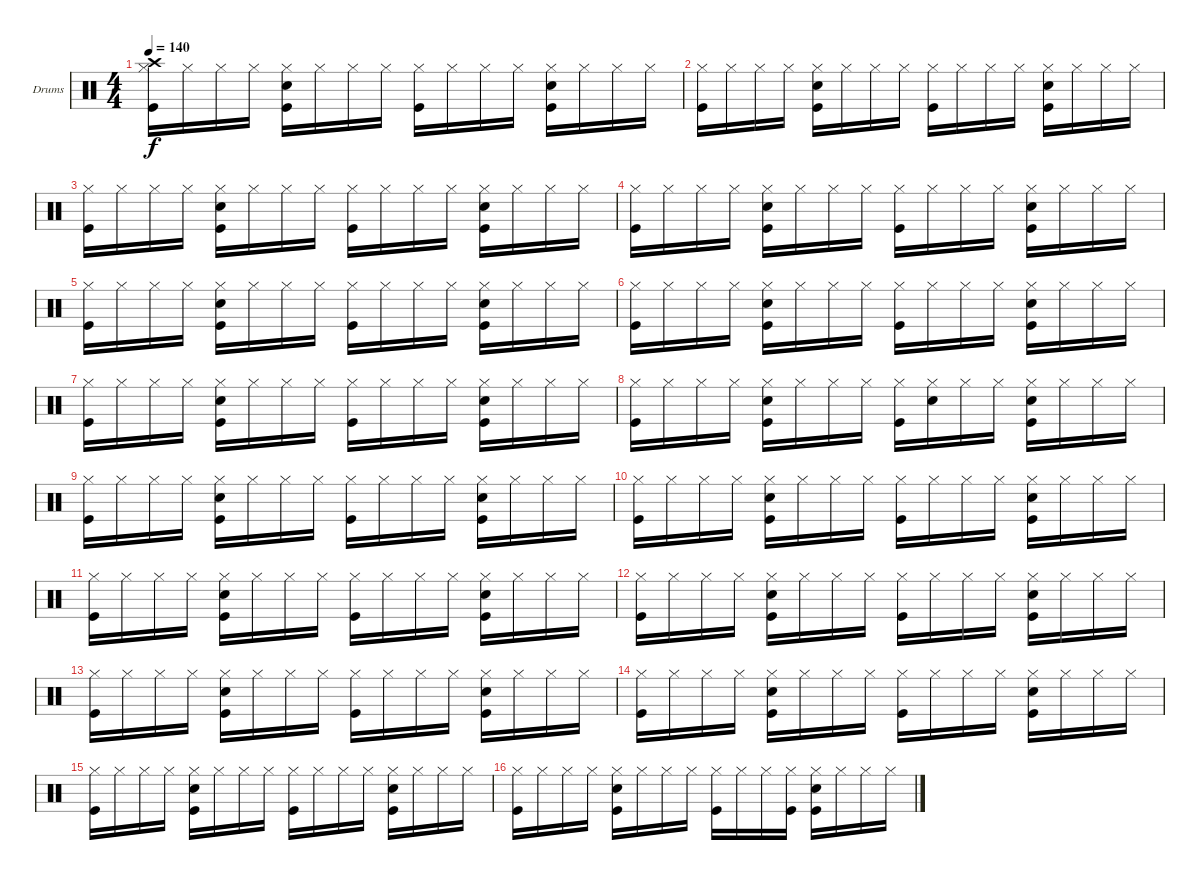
\defaultSystemsLayout 4
\bracketExtendMode groupsimilarinstruments
\firstSystemTrackNameOrientation horizontal
\otherSystemsTrackNameOrientation horizontal
\track ("Drumkit" "Drums") {instrument percussion}
\staff {score}
\articulation defaults
\ts (4 4)
\tempo 140
\clef neutral
\ks c
("Hi-Hat (closed)" "Kick (hit)" "Crash high (hit)").16{dy f} "Hi-Hat (closed)".16 "Hi-Hat (closed)".16 "Hi-Hat (closed)".16 ("Hi-Hat (closed)" "Kick (hit)" "Snare (hit) 2").16 "Hi-Hat (closed)".16 "Hi-Hat (closed)".16 "Hi-Hat (closed)".16 ("Hi-Hat (closed)" "Kick (hit)").16 "Hi-Hat (closed)".16 "Hi-Hat (closed)".16 "Hi-Hat (closed)".16 ("Hi-Hat (closed)" "Kick (hit)" "Snare (hit) 2").16 "Hi-Hat (closed)".16 "Hi-Hat (closed)".16 "Hi-Hat (closed)".16 |
("Hi-Hat (closed)" "Kick (hit)").16 "Hi-Hat (closed)".16 "Hi-Hat (closed)".16 "Hi-Hat (closed)".16 ("Hi-Hat (closed)" "Kick (hit)" "Snare (hit) 2").16 "Hi-Hat (closed)".16 "Hi-Hat (closed)".16 "Hi-Hat (closed)".16 ("Hi-Hat (closed)" "Kick (hit)").16 "Hi-Hat (closed)".16 "Hi-Hat (closed)".16 "Hi-Hat (closed)".16 ("Hi-Hat (closed)" "Kick (hit)" "Snare (hit) 2").16 "Hi-Hat (closed)".16 "Hi-Hat (closed)".16 "Hi-Hat (closed)".16 |
("Hi-Hat (closed)" "Kick (hit)").16 "Hi-Hat (closed)".16 "Hi-Hat (closed)".16 "Hi-Hat (closed)".16 ("Hi-Hat (closed)" "Kick (hit)" "Snare (hit) 2").16 "Hi-Hat (closed)".16 "Hi-Hat (closed)".16 "Hi-Hat (closed)".16 ("Hi-Hat (closed)" "Kick (hit)").16 "Hi-Hat (closed)".16 "Hi-Hat (closed)".16 "Hi-Hat (closed)".16 ("Hi-Hat (closed)" "Kick (hit)" "Snare (hit) 2").16 "Hi-Hat (closed)".16 "Hi-Hat (closed)".16 "Hi-Hat (closed)".16 |
("Hi-Hat (closed)" "Kick (hit)").16 "Hi-Hat (closed)".16 "Hi-Hat (closed)".16 "Hi-Hat (closed)".16 ("Hi-Hat (closed)" "Kick (hit)" "Snare (hit) 2").16 "Hi-Hat (closed)".16 "Hi-Hat (closed)".16 "Hi-Hat (closed)".16 ("Hi-Hat (closed)" "Kick (hit)").16 "Hi-Hat (closed)".16 "Hi-Hat (closed)".16 "Hi-Hat (closed)".16 ("Hi-Hat (closed)" "Kick (hit)" "Snare (hit) 2").16 "Hi-Hat (closed)".16 "Hi-Hat (closed)".16 "Hi-Hat (closed)".16 |
("Hi-Hat (closed)" "Kick (hit)").16 "Hi-Hat (closed)".16 "Hi-Hat (closed)".16 "Hi-Hat (closed)".16 ("Hi-Hat (closed)" "Kick (hit)" "Snare (hit) 2").16 "Hi-Hat (closed)".16 "Hi-Hat (closed)".16 "Hi-Hat (closed)".16 ("Hi-Hat (closed)" "Kick (hit)").16 "Hi-Hat (closed)".16 "Hi-Hat (closed)".16 "Hi-Hat (closed)".16 ("Hi-Hat (closed)" "Kick (hit)" "Snare (hit) 2").16 "Hi-Hat (closed)".16 "Hi-Hat (closed)".16 "Hi-Hat (closed)".16 |
("Hi-Hat (closed)" "Kick (hit)").16 "Hi-Hat (closed)".16 "Hi-Hat (closed)".16 "Hi-Hat (closed)".16 ("Hi-Hat (closed)" "Kick (hit)" "Snare (hit) 2").16 "Hi-Hat (closed)".16 "Hi-Hat (closed)".16 "Hi-Hat (closed)".16 ("Hi-Hat (closed)" "Kick (hit)").16 "Hi-Hat (closed)".16 "Hi-Hat (closed)".16 "Hi-Hat (closed)".16 ("Hi-Hat (closed)" "Kick (hit)" "Snare (hit) 2").16 "Hi-Hat (closed)".16 "Hi-Hat (closed)".16 "Hi-Hat (closed)".16 |
("Hi-Hat (closed)" "Kick (hit)").16 "Hi-Hat (closed)".16 "Hi-Hat (closed)".16 "Hi-Hat (closed)".16 ("Hi-Hat (closed)" "Kick (hit)" "Snare (hit) 2").16 "Hi-Hat (closed)".16 "Hi-Hat (closed)".16 "Hi-Hat (closed)".16 ("Hi-Hat (closed)" "Kick (hit)").16 "Hi-Hat (closed)".16 "Hi-Hat (closed)".16 "Hi-Hat (closed)".16 ("Hi-Hat (closed)" "Kick (hit)" "Snare (hit) 2").16 "Hi-Hat (closed)".16 "Hi-Hat (closed)".16 "Hi-Hat (closed)".16 |
("Hi-Hat (closed)" "Kick (hit)").16 "Hi-Hat (closed)".16 "Hi-Hat (closed)".16 "Hi-Hat (closed)".16 ("Hi-Hat (closed)" "Kick (hit)" "Snare (hit) 2").16 "Hi-Hat (closed)".16 "Hi-Hat (closed)".16 "Hi-Hat (closed)".16 ("Hi-Hat (closed)" "Kick (hit)").16 ("Hi-Hat (closed)" "Snare (hit) 2").16 "Hi-Hat (closed)".16 "Hi-Hat (closed)".16 ("Hi-Hat (closed)" "Kick (hit)" "Snare (hit) 2").16 "Hi-Hat (closed)".16 "Hi-Hat (closed)".16 "Hi-Hat (closed)".16 |
("Hi-Hat (closed)" "Kick (hit)").16 "Hi-Hat (closed)".16 "Hi-Hat (closed)".16 "Hi-Hat (closed)".16 ("Hi-Hat (closed)" "Kick (hit)" "Snare (hit) 2").16 "Hi-Hat (closed)".16 "Hi-Hat (closed)".16 "Hi-Hat (closed)".16 ("Hi-Hat (closed)" "Kick (hit)").16 "Hi-Hat (closed)".16 "Hi-Hat (closed)".16 "Hi-Hat (closed)".16 ("Hi-Hat (closed)" "Kick (hit)" "Snare (hit) 2").16 "Hi-Hat (closed)".16 "Hi-Hat (closed)".16 "Hi-Hat (closed)".16 |
("Hi-Hat (closed)" "Kick (hit)").16 "Hi-Hat (closed)".16 "Hi-Hat (closed)".16 "Hi-Hat (closed)".16 ("Hi-Hat (closed)" "Kick (hit)" "Snare (hit) 2").16 "Hi-Hat (closed)".16 "Hi-Hat (closed)".16 "Hi-Hat (closed)".16 ("Hi-Hat (closed)" "Kick (hit)").16 "Hi-Hat (closed)".16 "Hi-Hat (closed)".16 "Hi-Hat (closed)".16 ("Hi-Hat (closed)" "Kick (hit)" "Snare (hit) 2").16 "Hi-Hat (closed)".16 "Hi-Hat (closed)".16 "Hi-Hat (closed)".16 |
("Hi-Hat (closed)" "Kick (hit)").16 "Hi-Hat (closed)".16 "Hi-Hat (closed)".16 "Hi-Hat (closed)".16 ("Hi-Hat (closed)" "Kick (hit)" "Snare (hit) 2").16 "Hi-Hat (closed)".16 "Hi-Hat (closed)".16 "Hi-Hat (closed)".16 ("Hi-Hat (closed)" "Kick (hit)").16 "Hi-Hat (closed)".16 "Hi-Hat (closed)".16 "Hi-Hat (closed)".16 ("Hi-Hat (closed)" "Kick (hit)" "Snare (hit) 2").16 "Hi-Hat (closed)".16 "Hi-Hat (closed)".16 "Hi-Hat (closed)".16 |
("Hi-Hat (closed)" "Kick (hit)").16 "Hi-Hat (closed)".16 "Hi-Hat (closed)".16 "Hi-Hat (closed)".16 ("Hi-Hat (closed)" "Kick (hit)" "Snare (hit) 2").16 "Hi-Hat (closed)".16 "Hi-Hat (closed)".16 "Hi-Hat (closed)".16 ("Hi-Hat (closed)" "Kick (hit)").16 "Hi-Hat (closed)".16 "Hi-Hat (closed)".16 "Hi-Hat (closed)".16 ("Hi-Hat (closed)" "Kick (hit)" "Snare (hit) 2").16 "Hi-Hat (closed)".16 "Hi-Hat (closed)".16 "Hi-Hat (closed)".16 |
("Hi-Hat (closed)" "Kick (hit)").16 "Hi-Hat (closed)".16 "Hi-Hat (closed)".16 "Hi-Hat (closed)".16 ("Hi-Hat (closed)" "Kick (hit)" "Snare (hit) 2").16 "Hi-Hat (closed)".16 "Hi-Hat (closed)".16 "Hi-Hat (closed)".16 ("Hi-Hat (closed)" "Kick (hit)").16 "Hi-Hat (closed)".16 "Hi-Hat (closed)".16 "Hi-Hat (closed)".16 ("Hi-Hat (closed)" "Kick (hit)" "Snare (hit) 2").16 "Hi-Hat (closed)".16 "Hi-Hat (closed)".16 "Hi-Hat (closed)".16 |
("Hi-Hat (closed)" "Kick (hit)").16 "Hi-Hat (closed)".16 "Hi-Hat (closed)".16 "Hi-Hat (closed)".16 ("Hi-Hat (closed)" "Kick (hit)" "Snare (hit) 2").16 "Hi-Hat (closed)".16 "Hi-Hat (closed)".16 "Hi-Hat (closed)".16 ("Hi-Hat (closed)" "Kick (hit)").16 "Hi-Hat (closed)".16 "Hi-Hat (closed)".16 "Hi-Hat (closed)".16 ("Hi-Hat (closed)" "Kick (hit)" "Snare (hit) 2").16 "Hi-Hat (closed)".16 "Hi-Hat (closed)".16 "Hi-Hat (closed)".16 |
("Hi-Hat (closed)" "Kick (hit)").16 "Hi-Hat (closed)".16 "Hi-Hat (closed)".16 "Hi-Hat (closed)".16 ("Hi-Hat (closed)" "Kick (hit)" "Snare (hit) 2").16 "Hi-Hat (closed)".16 "Hi-Hat (closed)".16 "Hi-Hat (closed)".16 ("Hi-Hat (closed)" "Kick (hit)").16 "Hi-Hat (closed)".16 "Hi-Hat (closed)".16 "Hi-Hat (closed)".16 ("Hi-Hat (closed)" "Kick (hit)" "Snare (hit) 2").16 "Hi-Hat (closed)".16 "Hi-Hat (closed)".16 "Hi-Hat (closed)".16 |
("Hi-Hat (closed)" "Kick (hit)").16 "Hi-Hat (closed)".16 "Hi-Hat (closed)".16 "Hi-Hat (closed)".16 ("Hi-Hat (closed)" "Kick (hit)" "Snare (hit) 2").16 "Hi-Hat (closed)".16 "Hi-Hat (closed)".16 "Hi-Hat (closed)".16 ("Hi-Hat (closed)" "Kick (hit)").16 "Hi-Hat (closed)".16 "Hi-Hat (closed)".16 ("Hi-Hat (closed)" "Kick (hit)").16 ("Hi-Hat (closed)" "Kick (hit)" "Snare (hit) 2").16 "Hi-Hat (closed)".16 "Hi-Hat (closed)".16 "Hi-Hat (closed)".16
